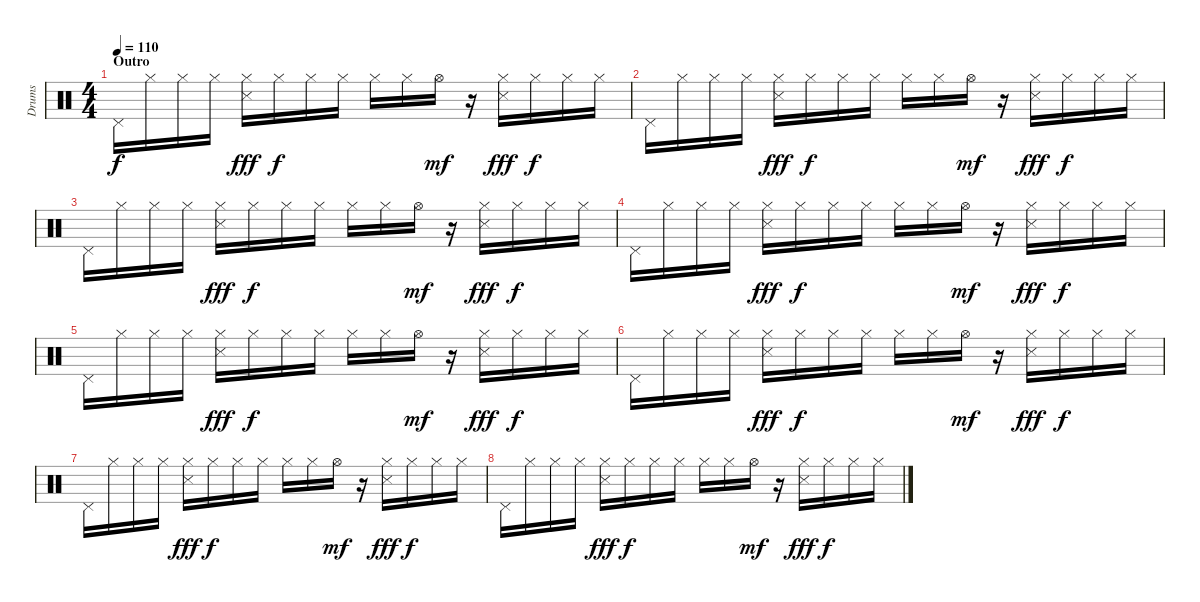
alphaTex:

\track ("Drums" "Drums") {instrument percussion}
\staff {score}
\articulation defaults
\ts (4 4)
\section ("" "Outro")
\tempo 110
\clef neutral
\ks c "Pedal Hi-Hat (hit)".16{dy f} "Hi-Hat (closed)".16 "Hi-Hat (closed)".16 "Hi-Hat (closed)".16
("Hi-Hat (closed)" "Snare (side stick) 3").16{dy fff} "Hi-Hat (closed)".16{dy f} "Hi-Hat (closed)".16 "Hi-Hat (closed)".16 "Hi-Hat (closed)".16 "Hi-Hat (closed)".16 "Hi-Hat (open)".16{dy mf} r.16 ("Hi-Hat (closed)" "Snare (side stick) 3").16{dy fff} "Hi-Hat (closed)".16{dy f} "Hi-Hat (closed)".16 "Hi-Hat (closed)".16 |
"Pedal Hi-Hat (hit)".16 "Hi-Hat (closed)".16 "Hi-Hat (closed)".16 "Hi-Hat (closed)".16 ("Hi-Hat (closed)" "Snare (side stick) 3").16{dy fff} "Hi-Hat (closed)".16{dy f} "Hi-Hat (closed)".16 "Hi-Hat (closed)".16 "Hi-Hat (closed)".16 "Hi-Hat (closed)".16 "Hi-Hat (open)".16{dy mf} r.16 ("Hi-Hat (closed)" "Snare (side stick) 3").16{dy fff} "Hi-Hat (closed)".16{dy f} "Hi-Hat (closed)".16 "Hi-Hat (closed)".16 |
"Pedal Hi-Hat (hit)".16 "Hi-Hat (closed)".16 "Hi-Hat (closed)".16 "Hi-Hat (closed)".16 ("Hi-Hat (closed)" "Snare (side stick) 3").16{dy fff} "Hi-Hat (closed)".16{dy f} "Hi-Hat (closed)".16 "Hi-Hat (closed)".16 "Hi-Hat (closed)".16 "Hi-Hat (closed)".16 "Hi-Hat (open)".16{dy mf} r.16 ("Hi-Hat (closed)" "Snare (side stick) 3").16{dy fff} "Hi-Hat (closed)".16{dy f} "Hi-Hat (closed)".16 "Hi-Hat (closed)".16 |
"Pedal Hi-Hat (hit)".16 "Hi-Hat (closed)".16 "Hi-Hat (closed)".16 "Hi-Hat (closed)".16 ("Hi-Hat (closed)" "Snare (side stick) 3").16{dy fff} "Hi-Hat (closed)".16{dy f} "Hi-Hat (closed)".16 "Hi-Hat (closed)".16 "Hi-Hat (closed)".16 "Hi-Hat (closed)".16 "Hi-Hat (open)".16{dy mf} r.16 ("Hi-Hat (closed)" "Snare (side stick) 3").16{dy fff} "Hi-Hat (closed)".16{dy f} "Hi-Hat (closed)".16 "Hi-Hat (closed)".16 |
"Pedal Hi-Hat (hit)".16 "Hi-Hat (closed)".16 "Hi-Hat (closed)".16 "Hi-Hat (closed)".16 ("Hi-Hat (closed)" "Snare (side stick) 3").16{dy fff} "Hi-Hat (closed)".16{dy f} "Hi-Hat (closed)".16 "Hi-Hat (closed)".16 "Hi-Hat (closed)".16 "Hi-Hat (closed)".16 "Hi-Hat (open)".16{dy mf} r.16 ("Hi-Hat (closed)" "Snare (side stick) 3").16{dy fff} "Hi-Hat (closed)".16{dy f} "Hi-Hat (closed)".16 "Hi-Hat (closed)".16 |
"Pedal Hi-Hat (hit)".16 "Hi-Hat (closed)".16 "Hi-Hat (closed)".16 "Hi-Hat (closed)".16 ("Hi-Hat (closed)" "Snare (side stick) 3").16{dy fff} "Hi-Hat (closed)".16{dy f} "Hi-Hat (closed)".16 "Hi-Hat (closed)".16 "Hi-Hat (closed)".16 "Hi-Hat (closed)".16 "Hi-Hat (open)".16{dy mf} r.16 ("Hi-Hat (closed)" "Snare (side stick) 3").16{dy fff} "Hi-Hat (closed)".16{dy f} "Hi-Hat (closed)".16 "Hi-Hat (closed)".16 |
"Pedal Hi-Hat (hit)".16 "Hi-Hat (closed)".16 "Hi-Hat (closed)".16 "Hi-Hat (closed)".16 ("Hi-Hat (closed)" "Snare (side stick) 3").16{dy fff} "Hi-Hat (closed)".16{dy f} "Hi-Hat (closed)".16 "Hi-Hat (closed)".16 "Hi-Hat (closed)".16 "Hi-Hat (closed)".16 "Hi-Hat (open)".16{dy mf} r.16 ("Hi-Hat (closed)" "Snare (side stick) 3").16{dy fff} "Hi-Hat (closed)".16{dy f} "Hi-Hat (closed)".16 "Hi-Hat (closed)".16 |
"Pedal Hi-Hat (hit)".16 "Hi-Hat (closed)".16 "Hi-Hat (closed)".16 "Hi-Hat (closed)".16 ("Hi-Hat (closed)" "Snare (side stick) 3").16{dy fff} "Hi-Hat (closed)".16{dy f} "Hi-Hat (closed)".16 "Hi-Hat (closed)".16 "Hi-Hat (closed)".16 "Hi-Hat (closed)".16 "Hi-Hat (open)".16{dy mf} r.16 ("Hi-Hat (closed)" "Snare (side stick) 3").16{dy fff} "Hi-Hat (closed)".16{dy f} "Hi-Hat (closed)".16 "Hi-Hat (closed)".16
